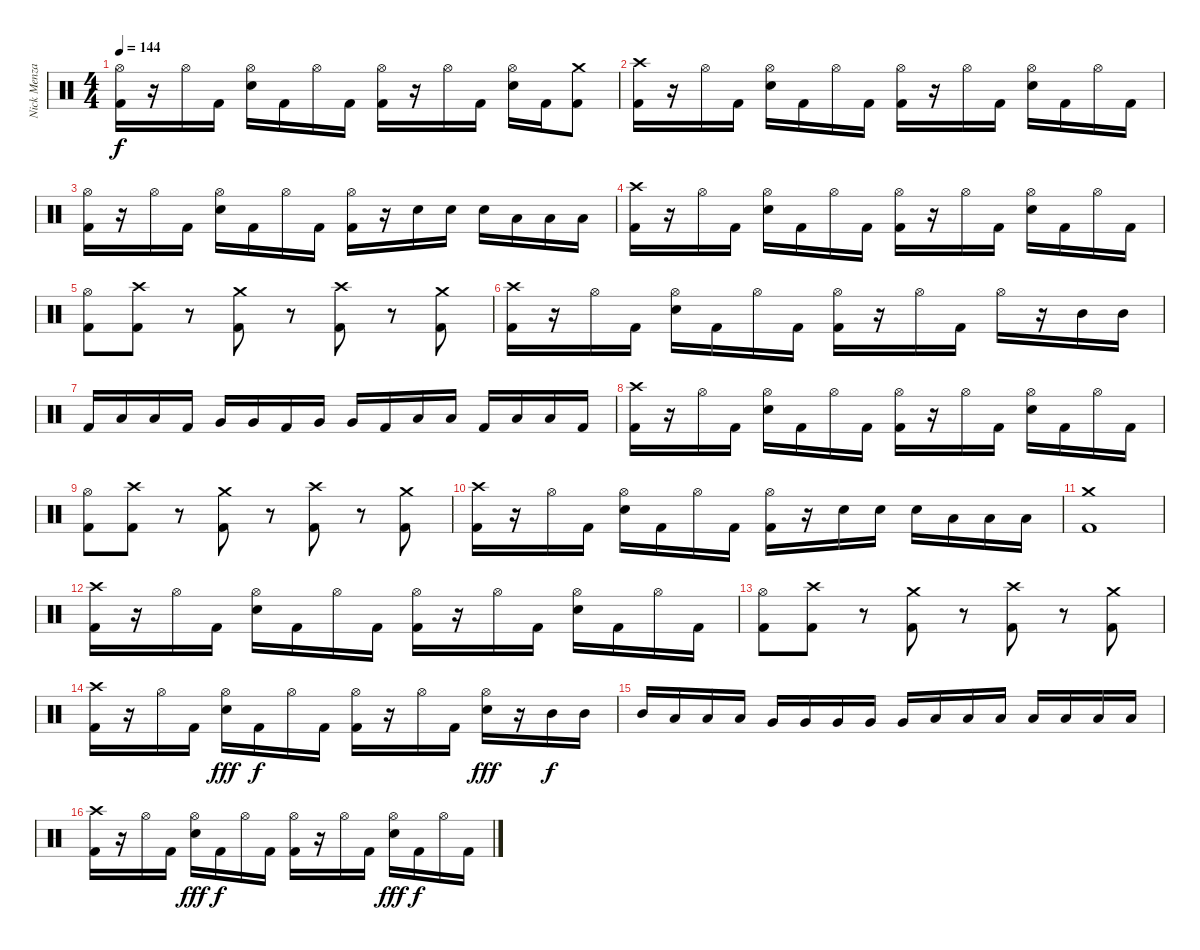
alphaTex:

\track ("Nick Menza" "Nick Menza") {instrument percussion}
\staff {score}
\articulation defaults
\ts (4 4)
\tempo 144
\clef neutral
\ks c
("Hi-Hat (open)" "Kick (hit) 2").16{dy f} r.16 "Hi-Hat (open)".16 "Kick (hit) 2".16 ("Hi-Hat (open)" "Electric Snare (hit)").16 "Kick (hit) 2".16 "Hi-Hat (open)".16 "Kick (hit) 2".16 ("Hi-Hat (open)" "Kick (hit) 2").16 r.16 "Hi-Hat (open)".16 "Kick (hit) 2".16 ("Hi-Hat (open)" "Electric Snare (hit)").16 "Kick (hit) 2".16 ("Crash medium (hit)" "Kick (hit) 2").8 |
("Crash high (hit)" "Kick (hit) 2").16 r.16 "Hi-Hat (open)".16 "Kick (hit) 2".16 ("Hi-Hat (open)" "Electric Snare (hit)").16 "Kick (hit) 2".16 "Hi-Hat (open)".16 "Kick (hit) 2".16 ("Hi-Hat (open)" "Kick (hit) 2").16 r.16 "Hi-Hat (open)".16 "Kick (hit) 2".16 ("Hi-Hat (open)" "Electric Snare (hit)").16 "Kick (hit) 2".16 "Hi-Hat (open)".16 "Kick (hit) 2".16 |
("Hi-Hat (open)" "Kick (hit) 2").16 r.16 "Hi-Hat (open)".16 "Kick (hit) 2".16 ("Hi-Hat (open)" "Electric Snare (hit)").16 "Kick (hit) 2".16 "Hi-Hat (open)".16 "Kick (hit) 2".16 ("Hi-Hat (open)" "Kick (hit) 2").16 r.16 "Electric Snare (hit)".16 "Electric Snare (hit)".16 "Electric Snare (hit)".16 "Low Tom (hit)".16 "Low Tom (hit)".16 "Low Tom (hit)".16 |
("Crash high (hit)" "Kick (hit) 2").16 r.16 "Hi-Hat (open)".16 "Kick (hit) 2".16 ("Hi-Hat (open)" "Electric Snare (hit)").16 "Kick (hit) 2".16 "Hi-Hat (open)".16 "Kick (hit) 2".16 ("Hi-Hat (open)" "Kick (hit) 2").16 r.16 "Hi-Hat (open)".16 "Kick (hit) 2".16 ("Hi-Hat (open)" "Electric Snare (hit)").16 "Kick (hit) 2".16 "Hi-Hat (open)".16 "Kick (hit) 2".16 |
("Hi-Hat (open)" "Kick (hit) 2").8 ("Crash high (hit)" "Kick (hit) 2").8 r.8 ("Crash medium (hit)" "Kick (hit) 2").8 r.8 ("Crash high (hit)" "Kick (hit) 2").8 r.8 ("Crash medium (hit)" "Kick (hit) 2").8 |
("Crash high (hit)" "Kick (hit) 2").16 r.16 "Hi-Hat (open)".16 "Kick (hit) 2".16 ("Hi-Hat (open)" "Electric Snare (hit)").16 "Kick (hit) 2".16 "Hi-Hat (open)".16 "Kick (hit) 2".16 ("Hi-Hat (open)" "Kick (hit) 2").16 r.16 "Hi-Hat (open)".16 "Kick (hit) 2".16 "Hi-Hat (open)".16 r.16 "Mid Tom (hit)".16 "Mid Tom (hit)".16 |
"Kick (hit) 2".16 "Low Tom (hit)".16 "Low Tom (hit)".16 "Kick (hit) 2".16 "Very Low Tom (hit)".16 "Very Low Tom (hit)".16 "Kick (hit) 2".16 "Very Low Tom (hit)".16 "Very Low Tom (hit)".16 "Kick (hit) 2".16 "Low Floor Tom (hit)".16 "Low Floor Tom (hit)".16 "Kick (hit) 2".16 "Low Floor Tom (hit)".16 "Low Floor Tom (hit)".16 "Kick (hit) 2".16 |
("Crash high (hit)" "Kick (hit) 2").16 r.16 "Hi-Hat (open)".16 "Kick (hit) 2".16 ("Hi-Hat (open)" "Electric Snare (hit)").16 "Kick (hit) 2".16 "Hi-Hat (open)".16 "Kick (hit) 2".16 ("Hi-Hat (open)" "Kick (hit) 2").16 r.16 "Hi-Hat (open)".16 "Kick (hit) 2".16 ("Hi-Hat (open)" "Electric Snare (hit)").16 "Kick (hit) 2".16 "Hi-Hat (open)".16 "Kick (hit) 2".16 |
("Hi-Hat (open)" "Kick (hit) 2").8 ("Crash high (hit)" "Kick (hit) 2").8 r.8 ("Crash medium (hit)" "Kick (hit) 2").8 r.8 ("Crash high (hit)" "Kick (hit) 2").8 r.8 ("Crash medium (hit)" "Kick (hit) 2").8 |
("Crash high (hit)" "Kick (hit) 2").16 r.16 "Hi-Hat (open)".16 "Kick (hit) 2".16 ("Hi-Hat (open)" "Electric Snare (hit)").16 "Kick (hit) 2".16 "Hi-Hat (open)".16 "Kick (hit) 2".16 ("Hi-Hat (open)" "Kick (hit) 2").16 r.16 "Electric Snare (hit)".16 "Electric Snare (hit)".16 "Electric Snare (hit)".16 "Low Tom (hit)".16 "Low Tom (hit)".16 "Low Tom (hit)".16 |
("Crash medium (hit)" "Kick (hit) 2").1 |
("Crash high (hit)" "Kick (hit) 2").16 r.16 "Hi-Hat (open)".16 "Kick (hit) 2".16 ("Hi-Hat (open)" "Electric Snare (hit)").16 "Kick (hit) 2".16 "Hi-Hat (open)".16 "Kick (hit) 2".16 ("Hi-Hat (open)" "Kick (hit) 2").16 r.16 "Hi-Hat (open)".16 "Kick (hit) 2".16 ("Hi-Hat (open)" "Electric Snare (hit)").16 "Kick (hit) 2".16 "Hi-Hat (open)".16 "Kick (hit) 2".16 |
("Hi-Hat (open)" "Kick (hit) 2").8 ("Crash high (hit)" "Kick (hit) 2").8 r.8 ("Crash medium (hit)" "Kick (hit) 2").8 r.8 ("Crash high (hit)" "Kick (hit) 2").8 r.8 ("Crash medium (hit)" "Kick (hit) 2").8 |
("Crash high (hit)" "Kick (hit) 2").16 r.16 "Hi-Hat (open)".16 "Kick (hit) 2".16 ("Hi-Hat (open)" "Electric Snare (hit)").16{dy fff} "Kick (hit) 2".16{dy f} "Hi-Hat (open)".16 "Kick (hit) 2".16 ("Hi-Hat (open)" "Kick (hit) 2").16 r.16 "Hi-Hat (open)".16 "Kick (hit) 2".16 ("Hi-Hat (open)" "Electric Snare (hit)").16{dy fff} r.16 "Mid Tom (hit)".16{dy f} "Mid Tom (hit)".16 |
"Mid Tom (hit)".16 "Low Tom (hit)".16 "Low Tom (hit)".16 "Low Tom (hit)".16 "Very Low Tom (hit)".16 "Very Low Tom (hit)".16 "Very Low Tom (hit)".16 "Very Low Tom (hit)".16 "Very Low Tom (hit)".16 "Low Floor Tom (hit)".16 "Low Floor Tom (hit)".16 "Low Floor Tom (hit)".16 "Low Floor Tom (hit)".16 "Low Floor Tom (hit)".16 "Low Floor Tom (hit)".16 "Low Floor Tom (hit)".16 |
("Crash high (hit)" "Kick (hit) 2").16 r.16 "Hi-Hat (open)".16 "Kick (hit) 2".16 ("Hi-Hat (open)" "Electric Snare (hit)").16{dy fff} "Kick (hit) 2".16{dy f} "Hi-Hat (open)".16 "Kick (hit) 2".16 ("Hi-Hat (open)" "Kick (hit) 2").16 r.16 "Hi-Hat (open)".16 "Kick (hit) 2".16 ("Hi-Hat (open)" "Electric Snare (hit)").16{dy fff} "Kick (hit) 2".16{dy f} "Hi-Hat (open)".16 "Kick (hit) 2".16
